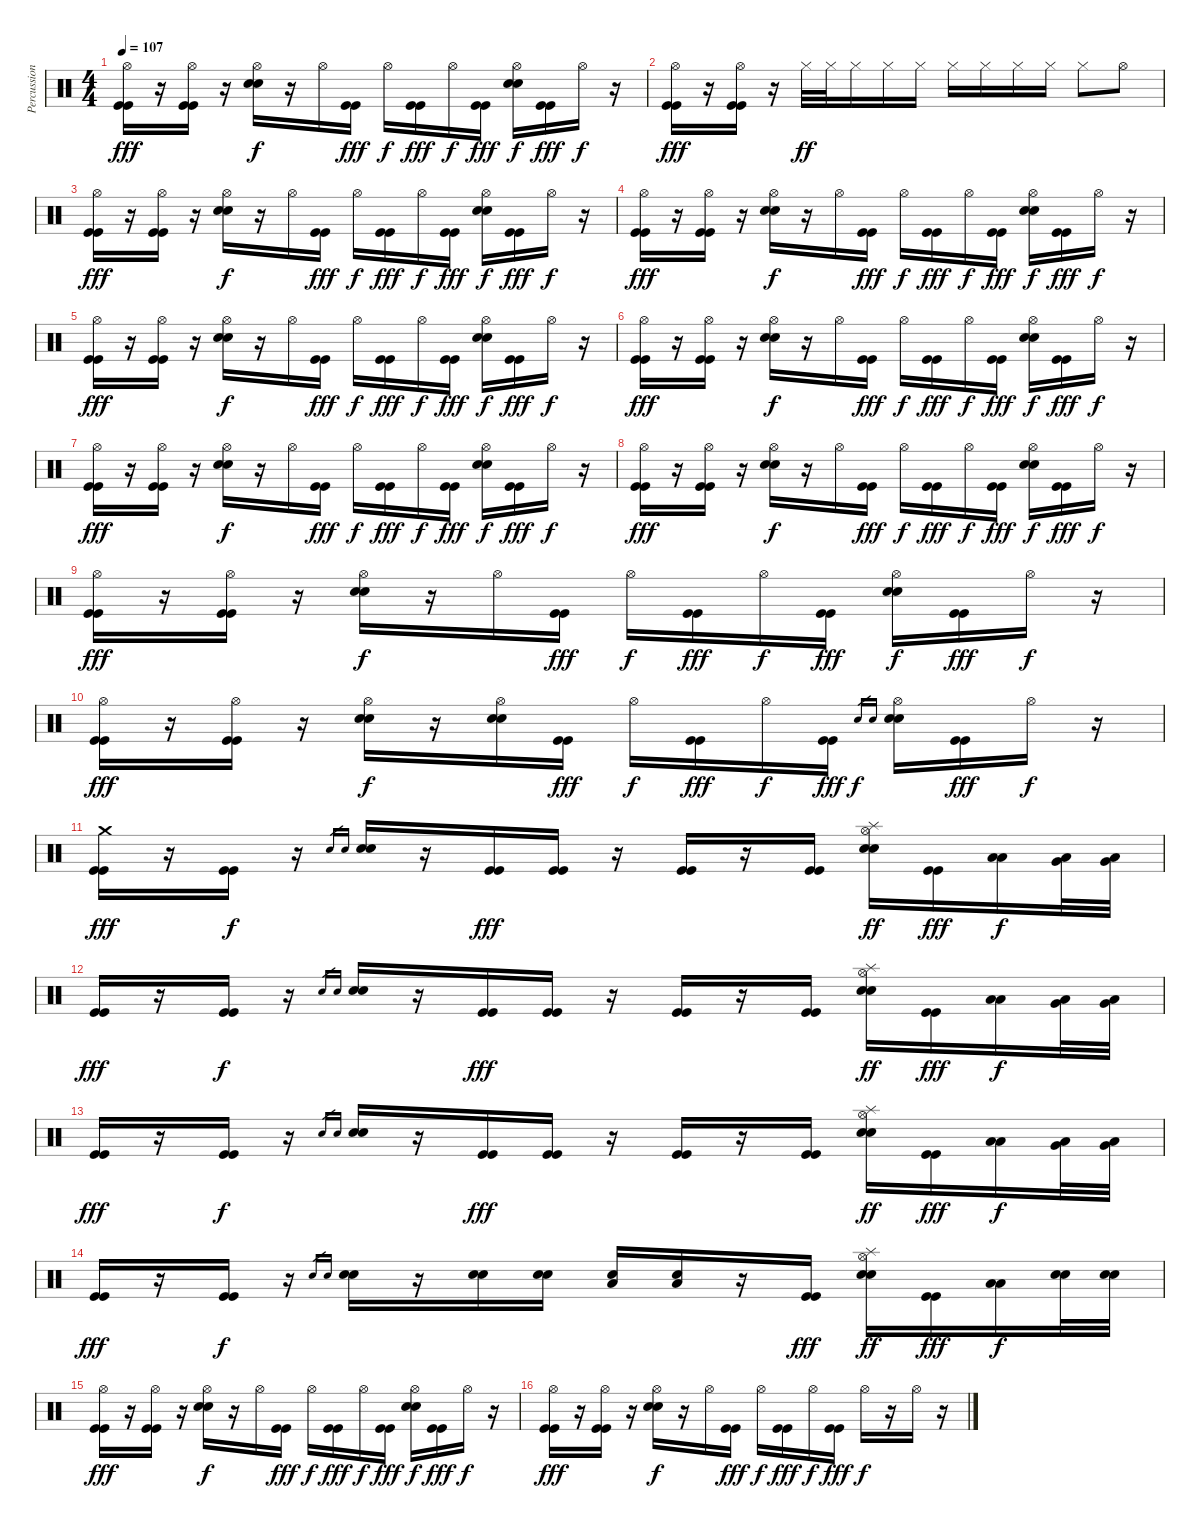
\track ("Percussions" "Percussion") {instrument percussion}
\staff {score}
\articulation defaults
\ts (4 4)
\tempo 107
\clef neutral
\ks c
("Hi-Hat (open)" "Kick (hit)" "Kick (hit)").16{dy fff} r.16 ("Hi-Hat (open)" "Kick (hit)" "Kick (hit)").16 r.16 ("Hi-Hat (open)" "Electric Snare (hit)" "Electric Snare (hit)").16{dy f} r.16 "Hi-Hat (open)".16 ("Kick (hit)" "Kick (hit)").16{dy fff} "Hi-Hat (open)".16{dy f} ("Kick (hit)" "Kick (hit)").16{dy fff} "Hi-Hat (open)".16{dy f} ("Kick (hit)" "Kick (hit)").16{dy fff} ("Hi-Hat (open)" "Electric Snare (hit)" "Electric Snare (hit)").16{dy f} ("Kick (hit)" "Kick (hit)").16{dy fff} "Hi-Hat (open)".16{dy f} r.16 |
("Hi-Hat (open)" "Kick (hit)" "Kick (hit)").16{dy fff} r.16 ("Hi-Hat (open)" "Kick (hit)" "Kick (hit)").16 r.16 "Hi-Hat (closed)".32{dy ff} "Hi-Hat (closed)".32 "Hi-Hat (closed)".16 "Hi-Hat (closed)".16 "Hi-Hat (closed)".16 "Hi-Hat (closed)".16 "Hi-Hat (closed)".16 "Hi-Hat (closed)".16 "Hi-Hat (closed)".16 "Hi-Hat (closed)".8 "Hi-Hat (open)".8 |
("Hi-Hat (open)" "Kick (hit)" "Kick (hit)").16{dy fff} r.16 ("Hi-Hat (open)" "Kick (hit)" "Kick (hit)").16 r.16 ("Hi-Hat (open)" "Electric Snare (hit)" "Electric Snare (hit)").16{dy f} r.16 "Hi-Hat (open)".16 ("Kick (hit)" "Kick (hit)").16{dy fff} "Hi-Hat (open)".16{dy f} ("Kick (hit)" "Kick (hit)").16{dy fff} "Hi-Hat (open)".16{dy f} ("Kick (hit)" "Kick (hit)").16{dy fff} ("Hi-Hat (open)" "Electric Snare (hit)" "Electric Snare (hit)").16{dy f} ("Kick (hit)" "Kick (hit)").16{dy fff} "Hi-Hat (open)".16{dy f} r.16 |
("Hi-Hat (open)" "Kick (hit)" "Kick (hit)").16{dy fff} r.16 ("Hi-Hat (open)" "Kick (hit)" "Kick (hit)").16 r.16 ("Hi-Hat (open)" "Electric Snare (hit)" "Electric Snare (hit)").16{dy f} r.16 "Hi-Hat (open)".16 ("Kick (hit)" "Kick (hit)").16{dy fff} "Hi-Hat (open)".16{dy f} ("Kick (hit)" "Kick (hit)").16{dy fff} "Hi-Hat (open)".16{dy f} ("Kick (hit)" "Kick (hit)").16{dy fff} ("Hi-Hat (open)" "Electric Snare (hit)" "Electric Snare (hit)").16{dy f} ("Kick (hit)" "Kick (hit)").16{dy fff} "Hi-Hat (open)".16{dy f} r.16 |
("Hi-Hat (open)" "Kick (hit)" "Kick (hit)").16{dy fff} r.16 ("Hi-Hat (open)" "Kick (hit)" "Kick (hit)").16 r.16 ("Hi-Hat (open)" "Electric Snare (hit)" "Electric Snare (hit)").16{dy f} r.16 "Hi-Hat (open)".16 ("Kick (hit)" "Kick (hit)").16{dy fff} "Hi-Hat (open)".16{dy f} ("Kick (hit)" "Kick (hit)").16{dy fff} "Hi-Hat (open)".16{dy f} ("Kick (hit)" "Kick (hit)").16{dy fff} ("Hi-Hat (open)" "Electric Snare (hit)" "Electric Snare (hit)").16{dy f} ("Kick (hit)" "Kick (hit)").16{dy fff} "Hi-Hat (open)".16{dy f} r.16 |
("Hi-Hat (open)" "Kick (hit)" "Kick (hit)").16{dy fff} r.16 ("Hi-Hat (open)" "Kick (hit)" "Kick (hit)").16 r.16 ("Hi-Hat (open)" "Electric Snare (hit)" "Electric Snare (hit)").16{dy f} r.16 "Hi-Hat (open)".16 ("Kick (hit)" "Kick (hit)").16{dy fff} "Hi-Hat (open)".16{dy f} ("Kick (hit)" "Kick (hit)").16{dy fff} "Hi-Hat (open)".16{dy f} ("Kick (hit)" "Kick (hit)").16{dy fff} ("Hi-Hat (open)" "Electric Snare (hit)" "Electric Snare (hit)").16{dy f} ("Kick (hit)" "Kick (hit)").16{dy fff} "Hi-Hat (open)".16{dy f} r.16 |
("Hi-Hat (open)" "Kick (hit)" "Kick (hit)").16{dy fff} r.16 ("Hi-Hat (open)" "Kick (hit)" "Kick (hit)").16 r.16 ("Hi-Hat (open)" "Electric Snare (hit)" "Electric Snare (hit)").16{dy f} r.16 "Hi-Hat (open)".16 ("Kick (hit)" "Kick (hit)").16{dy fff} "Hi-Hat (open)".16{dy f} ("Kick (hit)" "Kick (hit)").16{dy fff} "Hi-Hat (open)".16{dy f} ("Kick (hit)" "Kick (hit)").16{dy fff} ("Hi-Hat (open)" "Electric Snare (hit)" "Electric Snare (hit)").16{dy f} ("Kick (hit)" "Kick (hit)").16{dy fff} "Hi-Hat (open)".16{dy f} r.16 |
("Hi-Hat (open)" "Kick (hit)" "Kick (hit)").16{dy fff} r.16 ("Hi-Hat (open)" "Kick (hit)" "Kick (hit)").16 r.16 ("Hi-Hat (open)" "Electric Snare (hit)" "Electric Snare (hit)").16{dy f} r.16 "Hi-Hat (open)".16 ("Kick (hit)" "Kick (hit)").16{dy fff} "Hi-Hat (open)".16{dy f} ("Kick (hit)" "Kick (hit)").16{dy fff} "Hi-Hat (open)".16{dy f} ("Kick (hit)" "Kick (hit)").16{dy fff} ("Hi-Hat (open)" "Electric Snare (hit)" "Electric Snare (hit)").16{dy f} ("Kick (hit)" "Kick (hit)").16{dy fff} "Hi-Hat (open)".16{dy f} r.16 |
("Hi-Hat (open)" "Kick (hit)" "Kick (hit)").16{dy fff} r.16 ("Hi-Hat (open)" "Kick (hit)" "Kick (hit)").16 r.16 ("Hi-Hat (open)" "Electric Snare (hit)" "Electric Snare (hit)").16{dy f} r.16 "Hi-Hat (open)".16 ("Kick (hit)" "Kick (hit)").16{dy fff} "Hi-Hat (open)".16{dy f} ("Kick (hit)" "Kick (hit)").16{dy fff} "Hi-Hat (open)".16{dy f} ("Kick (hit)" "Kick (hit)").16{dy fff} ("Hi-Hat (open)" "Electric Snare (hit)" "Electric Snare (hit)").16{dy f} ("Kick (hit)" "Kick (hit)").16{dy fff} "Hi-Hat (open)".16{dy f} r.16 |
("Hi-Hat (open)" "Kick (hit)" "Kick (hit)").16{dy fff} r.16 ("Hi-Hat (open)" "Kick (hit)" "Kick (hit)").16 r.16 ("Hi-Hat (open)" "Electric Snare (hit)" "Electric Snare (hit)").16{dy f} r.16 ("Hi-Hat (open)" "Electric Snare (hit)" "Electric Snare (hit)").16 ("Kick (hit)" "Kick (hit)").16{dy fff} "Hi-Hat (open)".16{dy f} ("Kick (hit)" "Kick (hit)").16{dy fff} "Hi-Hat (open)".16{dy f} ("Kick (hit)" "Kick (hit)").16{dy fff} "Electric Snare (hit)".16{gr dy f} "Electric Snare (hit)".16{gr} ("Hi-Hat (open)" "Electric Snare (hit)" "Electric Snare (hit)").16 ("Kick (hit)" "Kick (hit)").16{dy fff} "Hi-Hat (open)".16{dy f} r.16 |
("Crash medium (hit)" "Kick (hit)" "Kick (hit)").16{dy fff} r.16 ("Kick (hit)" "Kick (hit)").16{dy f} r.16 "Electric Snare (hit)".16{gr} "Electric Snare (hit)".16{gr} ("Electric Snare (hit)" "Electric Snare (hit)").16 r.16 ("Kick (hit)" "Kick (hit)").16{dy fff} ("Kick (hit)" "Kick (hit)").16 r.16 ("Kick (hit)" "Kick (hit)").16 r.16 ("Kick (hit)" "Kick (hit)").16 ("Splash (hit)" "Hi-Hat (open)" "Electric Snare (hit)" "Electric Snare (hit)").16{dy ff} ("Kick (hit)" "Kick (hit)").16{dy fff} ("Low Floor Tom (hit)" "Low Floor Tom (hit)").16{dy f} ("Low Floor Tom (hit)" "Very Low Tom (hit)").32 ("Very Low Tom (hit)" "Low Tom (hit)").32 |
("Kick (hit)" "Kick (hit)").16{dy fff} r.16 ("Kick (hit)" "Kick (hit)").16{dy f} r.16 "Electric Snare (hit)".16{gr} "Electric Snare (hit)".16{gr} ("Electric Snare (hit)" "Electric Snare (hit)").16 r.16 ("Kick (hit)" "Kick (hit)").16{dy fff} ("Kick (hit)" "Kick (hit)").16 r.16 ("Kick (hit)" "Kick (hit)").16 r.16 ("Kick (hit)" "Kick (hit)").16 ("Splash (hit)" "Hi-Hat (open)" "Electric Snare (hit)" "Electric Snare (hit)").16{dy ff} ("Kick (hit)" "Kick (hit)").16{dy fff} ("Low Floor Tom (hit)" "Low Floor Tom (hit)").16{dy f} ("Low Floor Tom (hit)" "Very Low Tom (hit)").32 ("Very Low Tom (hit)" "Low Tom (hit)").32 |
("Kick (hit)" "Kick (hit)").16{dy fff} r.16 ("Kick (hit)" "Kick (hit)").16{dy f} r.16 "Electric Snare (hit)".16{gr} "Electric Snare (hit)".16{gr} ("Electric Snare (hit)" "Electric Snare (hit)").16 r.16 ("Kick (hit)" "Kick (hit)").16{dy fff} ("Kick (hit)" "Kick (hit)").16 r.16 ("Kick (hit)" "Kick (hit)").16 r.16 ("Kick (hit)" "Kick (hit)").16 ("Splash (hit)" "Hi-Hat (open)" "Electric Snare (hit)" "Electric Snare (hit)").16{dy ff} ("Kick (hit)" "Kick (hit)").16{dy fff} ("Low Floor Tom (hit)" "Low Floor Tom (hit)").16{dy f} ("Low Floor Tom (hit)" "Very Low Tom (hit)").32 ("Very Low Tom (hit)" "Low Tom (hit)").32 |
("Kick (hit)" "Kick (hit)").16{dy fff} r.16 ("Kick (hit)" "Kick (hit)").16{dy f} r.16 "Electric Snare (hit)".16{gr} "Electric Snare (hit)".16{gr} ("Electric Snare (hit)" "Electric Snare (hit)").16 r.16 ("Electric Snare (hit)" "Electric Snare (hit)").16 ("Electric Snare (hit)" "Electric Snare (hit)").16 ("Low Floor Tom (hit)" "Electric Snare (hit)").16 ("Low Floor Tom (hit)" "Electric Snare (hit)").16 r.16 ("Kick (hit)" "Kick (hit)").16{dy fff} ("Splash (hit)" "Hi-Hat (open)" "Electric Snare (hit)" "Electric Snare (hit)").16{dy ff} ("Kick (hit)" "Kick (hit)").16{dy fff} ("Low Floor Tom (hit)" "Low Floor Tom (hit)").16{dy f} ("Electric Snare (hit)" "Electric Snare (hit)").32 ("Electric Snare (hit)" "Electric Snare (hit)").32 |
("Hi-Hat (open)" "Kick (hit)" "Kick (hit)").16{dy fff} r.16 ("Hi-Hat (open)" "Kick (hit)" "Kick (hit)").16 r.16 ("Hi-Hat (open)" "Electric Snare (hit)" "Electric Snare (hit)").16{dy f} r.16 "Hi-Hat (open)".16 ("Kick (hit)" "Kick (hit)").16{dy fff} "Hi-Hat (open)".16{dy f} ("Kick (hit)" "Kick (hit)").16{dy fff} "Hi-Hat (open)".16{dy f} ("Kick (hit)" "Kick (hit)").16{dy fff} ("Hi-Hat (open)" "Electric Snare (hit)" "Electric Snare (hit)").16{dy f} ("Kick (hit)" "Kick (hit)").16{dy fff} "Hi-Hat (open)".16{dy f} r.16 |
("Hi-Hat (open)" "Kick (hit)" "Kick (hit)").16{dy fff} r.16 ("Hi-Hat (open)" "Kick (hit)" "Kick (hit)").16 r.16 ("Hi-Hat (open)" "Electric Snare (hit)" "Electric Snare (hit)").16{dy f} r.16 "Hi-Hat (open)".16 ("Kick (hit)" "Kick (hit)").16{dy fff} "Hi-Hat (open)".16{dy f} ("Kick (hit)" "Kick (hit)").16{dy fff} "Hi-Hat (open)".16{dy f} ("Kick (hit)" "Kick (hit)").16{dy fff} "Hi-Hat (open)".16{dy f} r.16 "Hi-Hat (open)".16 r.16
